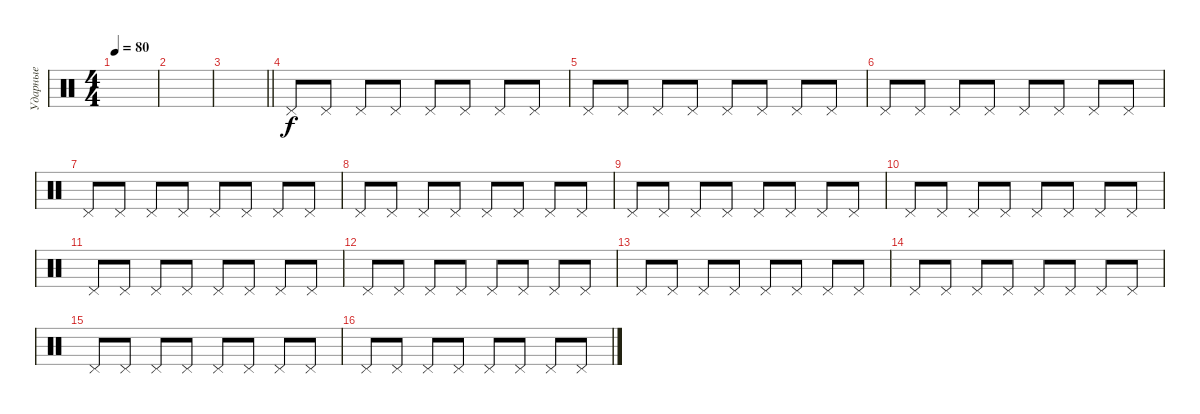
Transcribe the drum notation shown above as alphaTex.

\track ("Ударные" "Ударные") {instrument percussion}
\staff {score}
\articulation defaults
\ts (4 4)
\tempo 80
\clef neutral
\ks c
|
|
\barLineRight lightlight
|
"Pedal Hi-Hat (hit)".8 "Pedal Hi-Hat (hit)".8 "Pedal Hi-Hat (hit)".8 "Pedal Hi-Hat (hit)".8 "Pedal Hi-Hat (hit)".8 "Pedal Hi-Hat (hit)".8 "Pedal Hi-Hat (hit)".8 "Pedal Hi-Hat (hit)".8 |
"Pedal Hi-Hat (hit)".8 "Pedal Hi-Hat (hit)".8 "Pedal Hi-Hat (hit)".8 "Pedal Hi-Hat (hit)".8 "Pedal Hi-Hat (hit)".8 "Pedal Hi-Hat (hit)".8 "Pedal Hi-Hat (hit)".8 "Pedal Hi-Hat (hit)".8 |
"Pedal Hi-Hat (hit)".8 "Pedal Hi-Hat (hit)".8 "Pedal Hi-Hat (hit)".8 "Pedal Hi-Hat (hit)".8 "Pedal Hi-Hat (hit)".8 "Pedal Hi-Hat (hit)".8 "Pedal Hi-Hat (hit)".8 "Pedal Hi-Hat (hit)".8 |
"Pedal Hi-Hat (hit)".8 "Pedal Hi-Hat (hit)".8 "Pedal Hi-Hat (hit)".8 "Pedal Hi-Hat (hit)".8 "Pedal Hi-Hat (hit)".8 "Pedal Hi-Hat (hit)".8 "Pedal Hi-Hat (hit)".8 "Pedal Hi-Hat (hit)".8 |
"Pedal Hi-Hat (hit)".8 "Pedal Hi-Hat (hit)".8 "Pedal Hi-Hat (hit)".8 "Pedal Hi-Hat (hit)".8 "Pedal Hi-Hat (hit)".8 "Pedal Hi-Hat (hit)".8 "Pedal Hi-Hat (hit)".8 "Pedal Hi-Hat (hit)".8 |
"Pedal Hi-Hat (hit)".8 "Pedal Hi-Hat (hit)".8 "Pedal Hi-Hat (hit)".8 "Pedal Hi-Hat (hit)".8 "Pedal Hi-Hat (hit)".8 "Pedal Hi-Hat (hit)".8 "Pedal Hi-Hat (hit)".8 "Pedal Hi-Hat (hit)".8 |
"Pedal Hi-Hat (hit)".8 "Pedal Hi-Hat (hit)".8 "Pedal Hi-Hat (hit)".8 "Pedal Hi-Hat (hit)".8 "Pedal Hi-Hat (hit)".8 "Pedal Hi-Hat (hit)".8 "Pedal Hi-Hat (hit)".8 "Pedal Hi-Hat (hit)".8 |
"Pedal Hi-Hat (hit)".8 "Pedal Hi-Hat (hit)".8 "Pedal Hi-Hat (hit)".8 "Pedal Hi-Hat (hit)".8 "Pedal Hi-Hat (hit)".8 "Pedal Hi-Hat (hit)".8 "Pedal Hi-Hat (hit)".8 "Pedal Hi-Hat (hit)".8 |
"Pedal Hi-Hat (hit)".8 "Pedal Hi-Hat (hit)".8 "Pedal Hi-Hat (hit)".8 "Pedal Hi-Hat (hit)".8 "Pedal Hi-Hat (hit)".8 "Pedal Hi-Hat (hit)".8 "Pedal Hi-Hat (hit)".8 "Pedal Hi-Hat (hit)".8 |
"Pedal Hi-Hat (hit)".8 "Pedal Hi-Hat (hit)".8 "Pedal Hi-Hat (hit)".8 "Pedal Hi-Hat (hit)".8 "Pedal Hi-Hat (hit)".8 "Pedal Hi-Hat (hit)".8 "Pedal Hi-Hat (hit)".8 "Pedal Hi-Hat (hit)".8 |
"Pedal Hi-Hat (hit)".8 "Pedal Hi-Hat (hit)".8 "Pedal Hi-Hat (hit)".8 "Pedal Hi-Hat (hit)".8 "Pedal Hi-Hat (hit)".8 "Pedal Hi-Hat (hit)".8 "Pedal Hi-Hat (hit)".8 "Pedal Hi-Hat (hit)".8 |
"Pedal Hi-Hat (hit)".8 "Pedal Hi-Hat (hit)".8 "Pedal Hi-Hat (hit)".8 "Pedal Hi-Hat (hit)".8 "Pedal Hi-Hat (hit)".8 "Pedal Hi-Hat (hit)".8 "Pedal Hi-Hat (hit)".8 "Pedal Hi-Hat (hit)".8 |
"Pedal Hi-Hat (hit)".8 "Pedal Hi-Hat (hit)".8 "Pedal Hi-Hat (hit)".8 "Pedal Hi-Hat (hit)".8 "Pedal Hi-Hat (hit)".8 "Pedal Hi-Hat (hit)".8 "Pedal Hi-Hat (hit)".8 "Pedal Hi-Hat (hit)".8
